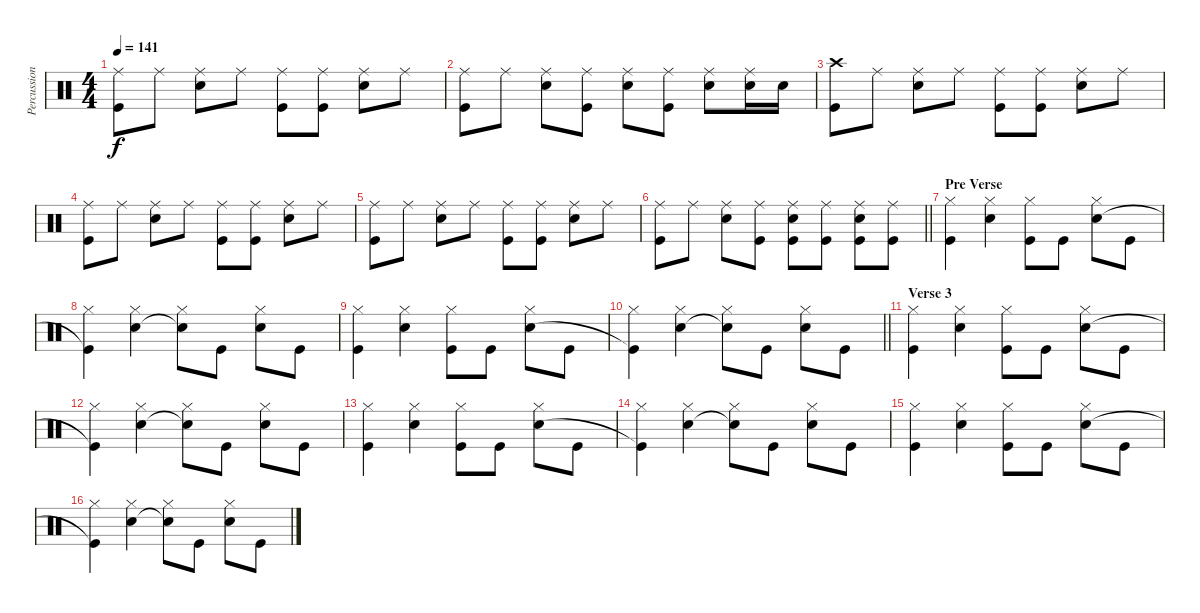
\track ("Percussion" "Percussion") {instrument percussion}
\staff {score}
\articulation defaults
\ts (4 4)
\tempo 141
\clef neutral
\ks c
("Ride (middle)" "Kick (hit)").8{dy f} "Ride (middle)".8 ("Ride (middle)" "Snare (hit) 2").8 "Ride (middle)".8 ("Ride (middle)" "Kick (hit)").8 ("Ride (middle)" "Kick (hit)").8 ("Ride (middle)" "Snare (hit) 2").8 "Ride (middle)".8 |
("Ride (middle)" "Kick (hit)").8 "Ride (middle)".8 ("Ride (middle)" "Snare (hit) 2").8 ("Ride (middle)" "Kick (hit)").8 ("Ride (middle)" "Snare (hit) 2").8 ("Ride (middle)" "Kick (hit)").8 ("Ride (middle)" "Snare (hit) 2").8 ("Ride (middle)" "Snare (hit) 2").16 "Snare (hit) 2".16 |
("Crash high (hit)" "Kick (hit)").8 "Ride (middle)".8 ("Ride (middle)" "Snare (hit) 2").8 "Ride (middle)".8 ("Ride (middle)" "Kick (hit)").8 ("Ride (middle)" "Kick (hit)").8 ("Ride (middle)" "Snare (hit) 2").8 "Ride (middle)".8 |
("Ride (middle)" "Kick (hit)").8 "Ride (middle)".8 ("Ride (middle)" "Snare (hit) 2").8 "Ride (middle)".8 ("Ride (middle)" "Kick (hit)").8 ("Ride (middle)" "Kick (hit)").8 ("Ride (middle)" "Snare (hit) 2").8 "Ride (middle)".8 |
("Ride (middle)" "Kick (hit)").8 "Ride (middle)".8 ("Ride (middle)" "Snare (hit) 2").8 "Ride (middle)".8 ("Ride (middle)" "Kick (hit)").8 ("Ride (middle)" "Kick (hit)").8 ("Ride (middle)" "Snare (hit) 2").8 "Ride (middle)".8 |
\barLineRight lightlight
("Ride (middle)" "Kick (hit)").8 "Ride (middle)".8 ("Ride (middle)" "Snare (hit) 2").8 ("Ride (middle)" "Kick (hit)").8 ("Ride (middle)" "Snare (hit) 2" "Kick (hit)").8 ("Ride (middle)" "Kick (hit)").8 ("Ride (middle)" "Snare (hit) 2" "Kick (hit)").8 ("Ride (middle)" "Kick (hit)").8 |
\section ("" "Pre Verse")
("Kick (hit)" "Hi-Hat (closed)").4 ("Snare (hit) 2" "Hi-Hat (closed)").4 ("Hi-Hat (closed)" "Kick (hit)").8 "Kick (hit)".8 ("Hi-Hat (closed)" "Snare (hit) 2").8 "Kick (hit)".8 |
("Hi-Hat (closed)" "Kick (hit)"{t}).4 ("Hi-Hat (closed)" "Snare (hit) 2").4 ("Hi-Hat (closed)" "Snare (hit) 2"{t}).8 "Kick (hit)".8 ("Hi-Hat (closed)" "Snare (hit) 2").8 "Kick (hit)".8 |
("Kick (hit)" "Hi-Hat (closed)").4 ("Snare (hit) 2" "Hi-Hat (closed)").4 ("Hi-Hat (closed)" "Kick (hit)").8 "Kick (hit)".8 ("Hi-Hat (closed)" "Snare (hit) 2").8 "Kick (hit)".8 |
\barLineRight lightlight
("Hi-Hat (closed)" "Kick (hit)"{t}).4 ("Hi-Hat (closed)" "Snare (hit) 2").4 ("Hi-Hat (closed)" "Snare (hit) 2"{t}).8 "Kick (hit)".8 ("Hi-Hat (closed)" "Snare (hit) 2").8 "Kick (hit)".8 |
\section ("" "Verse 3")
("Kick (hit)" "Hi-Hat (closed)").4 ("Snare (hit) 2" "Hi-Hat (closed)").4 ("Hi-Hat (closed)" "Kick (hit)").8 "Kick (hit)".8 ("Hi-Hat (closed)" "Snare (hit) 2").8 "Kick (hit)".8 |
("Hi-Hat (closed)" "Kick (hit)"{t}).4 ("Hi-Hat (closed)" "Snare (hit) 2").4 ("Hi-Hat (closed)" "Snare (hit) 2"{t}).8 "Kick (hit)".8 ("Hi-Hat (closed)" "Snare (hit) 2").8 "Kick (hit)".8 |
("Kick (hit)" "Hi-Hat (closed)").4 ("Snare (hit) 2" "Hi-Hat (closed)").4 ("Hi-Hat (closed)" "Kick (hit)").8 "Kick (hit)".8 ("Hi-Hat (closed)" "Snare (hit) 2").8 "Kick (hit)".8 |
("Hi-Hat (closed)" "Kick (hit)"{t}).4 ("Hi-Hat (closed)" "Snare (hit) 2").4 ("Hi-Hat (closed)" "Snare (hit) 2"{t}).8 "Kick (hit)".8 ("Hi-Hat (closed)" "Snare (hit) 2").8 "Kick (hit)".8 |
("Kick (hit)" "Hi-Hat (closed)").4 ("Snare (hit) 2" "Hi-Hat (closed)").4 ("Hi-Hat (closed)" "Kick (hit)").8 "Kick (hit)".8 ("Hi-Hat (closed)" "Snare (hit) 2").8 "Kick (hit)".8 |
("Hi-Hat (closed)" "Kick (hit)"{t}).4 ("Hi-Hat (closed)" "Snare (hit) 2").4 ("Hi-Hat (closed)" "Snare (hit) 2"{t}).8 "Kick (hit)".8 ("Hi-Hat (closed)" "Snare (hit) 2").8 "Kick (hit)".8
